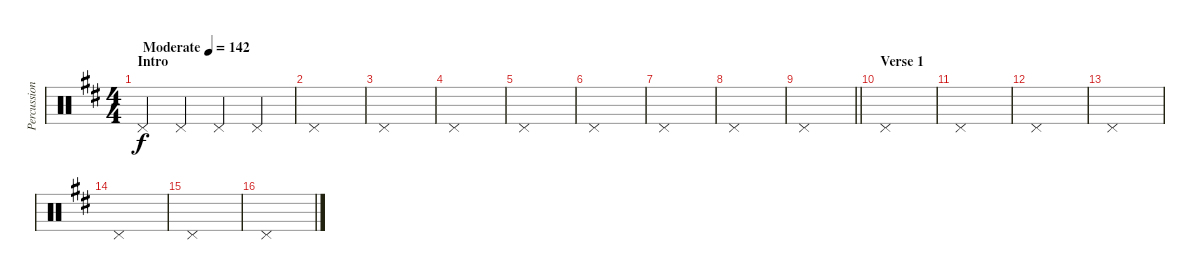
\track ("Percussion" "Percussion") {instrument percussion}
\staff {score}
\articulation defaults
\ts (4 4)
\section ("" "Intro")
\tempo (142 "Moderate")
\clef neutral
\ks d "Pedal Hi-Hat (hit)".4{dy f} "Pedal Hi-Hat (hit)".4 "Pedal Hi-Hat (hit)".4{beam merge} "Pedal Hi-Hat (hit)".4
|
"Pedal Hi-Hat (hit)".1 |
"Pedal Hi-Hat (hit)".1 |
"Pedal Hi-Hat (hit)".1 |
"Pedal Hi-Hat (hit)".1 |
"Pedal Hi-Hat (hit)".1 |
"Pedal Hi-Hat (hit)".1 |
"Pedal Hi-Hat (hit)".1 |
\barLineRight lightlight "Pedal Hi-Hat (hit)".1
|
\section ("" "Verse 1")
"Pedal Hi-Hat (hit)".1 |
"Pedal Hi-Hat (hit)".1 |
"Pedal Hi-Hat (hit)".1 |
"Pedal Hi-Hat (hit)".1 |
"Pedal Hi-Hat (hit)".1 |
"Pedal Hi-Hat (hit)".1 |
"Pedal Hi-Hat (hit)".1
